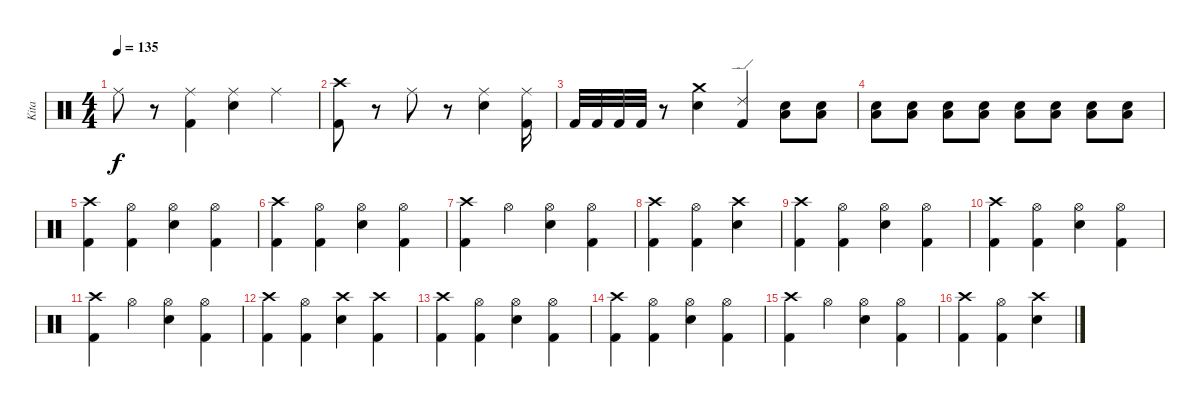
\track ("Kita" "Kita") {instrument percussion}
\staff {score}
\articulation defaults
\ts (4 4)
\tempo 135
\clef neutral
\ks c "Ride (middle)".8{dy f}
r.8 ("Ride (middle)" "Kick (hit) 2").4 ("Ride (middle)" "Snare (hit) 2").4 "Ride (middle)".4 |
("Crash high (hit)" "Kick (hit) 2").8 r.8 "Ride (middle)".8 r.8 ("Ride (middle)" "Snare (hit) 2").4 ("Ride (middle)" "Kick (hit) 2").16 |
"Kick (hit) 2".32 "Kick (hit) 2".32 "Kick (hit) 2".32 "Kick (hit) 2".32 r.8 ("Snare (hit) 2" "Crash medium (hit)").4 ("Ride (edge) 2" "Kick (hit) 2").4 ("Snare (hit) 2" "Low Tom (hit)").8 ("Snare (hit) 2" "Low Tom (hit)").8 |
("Snare (hit) 2" "Low Tom (hit)").8 ("Snare (hit) 2" "Low Tom (hit)").8 ("Snare (hit) 2" "Low Tom (hit)").8 ("Snare (hit) 2" "Low Tom (hit)").8 ("Snare (hit) 2" "Low Tom (hit)").8 ("Snare (hit) 2" "Low Tom (hit)").8 ("Snare (hit) 2" "Low Tom (hit)").8 ("Snare (hit) 2" "Low Tom (hit)").8 |
("Kick (hit) 2" "Crash high (hit)").4 ("Kick (hit) 2" "Hi-Hat (open)").4 ("Snare (hit) 2" "Hi-Hat (open)").4 ("Kick (hit) 2" "Hi-Hat (open)").4 |
("Kick (hit) 2" "Crash high (hit)").4 ("Kick (hit) 2" "Hi-Hat (open)").4 ("Snare (hit) 2" "Hi-Hat (open)").4 ("Kick (hit) 2" "Hi-Hat (open)").4 |
("Kick (hit) 2" "Crash high (hit)").4 "Hi-Hat (open)".4 ("Snare (hit) 2" "Hi-Hat (open)").4 ("Kick (hit) 2" "Hi-Hat (open)").4 |
("Kick (hit) 2" "Crash high (hit)").4 ("Kick (hit) 2" "Hi-Hat (open)").4 ("Crash high (hit)" "Snare (hit) 2").4 |
("Kick (hit) 2" "Crash high (hit)").4 ("Kick (hit) 2" "Hi-Hat (open)").4 ("Snare (hit) 2" "Hi-Hat (open)").4 ("Kick (hit) 2" "Hi-Hat (open)").4 |
("Kick (hit) 2" "Crash high (hit)").4 ("Kick (hit) 2" "Hi-Hat (open)").4 ("Snare (hit) 2" "Hi-Hat (open)").4 ("Kick (hit) 2" "Hi-Hat (open)").4 |
("Kick (hit) 2" "Crash high (hit)").4 "Hi-Hat (open)".4 ("Snare (hit) 2" "Hi-Hat (open)").4 ("Kick (hit) 2" "Hi-Hat (open)").4 |
("Kick (hit) 2" "Crash high (hit)").4 ("Kick (hit) 2" "Hi-Hat (open)").4 ("Crash high (hit)" "Snare (hit) 2").4 ("Crash high (hit)" "Kick (hit) 2").4 |
("Kick (hit) 2" "Crash high (hit)").4 ("Kick (hit) 2" "Hi-Hat (open)").4 ("Snare (hit) 2" "Hi-Hat (open)").4 ("Kick (hit) 2" "Hi-Hat (open)").4 |
("Kick (hit) 2" "Crash high (hit)").4 ("Kick (hit) 2" "Hi-Hat (open)").4 ("Snare (hit) 2" "Hi-Hat (open)").4 ("Kick (hit) 2" "Hi-Hat (open)").4 |
("Kick (hit) 2" "Crash high (hit)").4 "Hi-Hat (open)".4 ("Snare (hit) 2" "Hi-Hat (open)").4 ("Kick (hit) 2" "Hi-Hat (open)").4 |
("Kick (hit) 2" "Crash high (hit)").4 ("Kick (hit) 2" "Hi-Hat (open)").4 ("Crash high (hit)" "Snare (hit) 2").4
